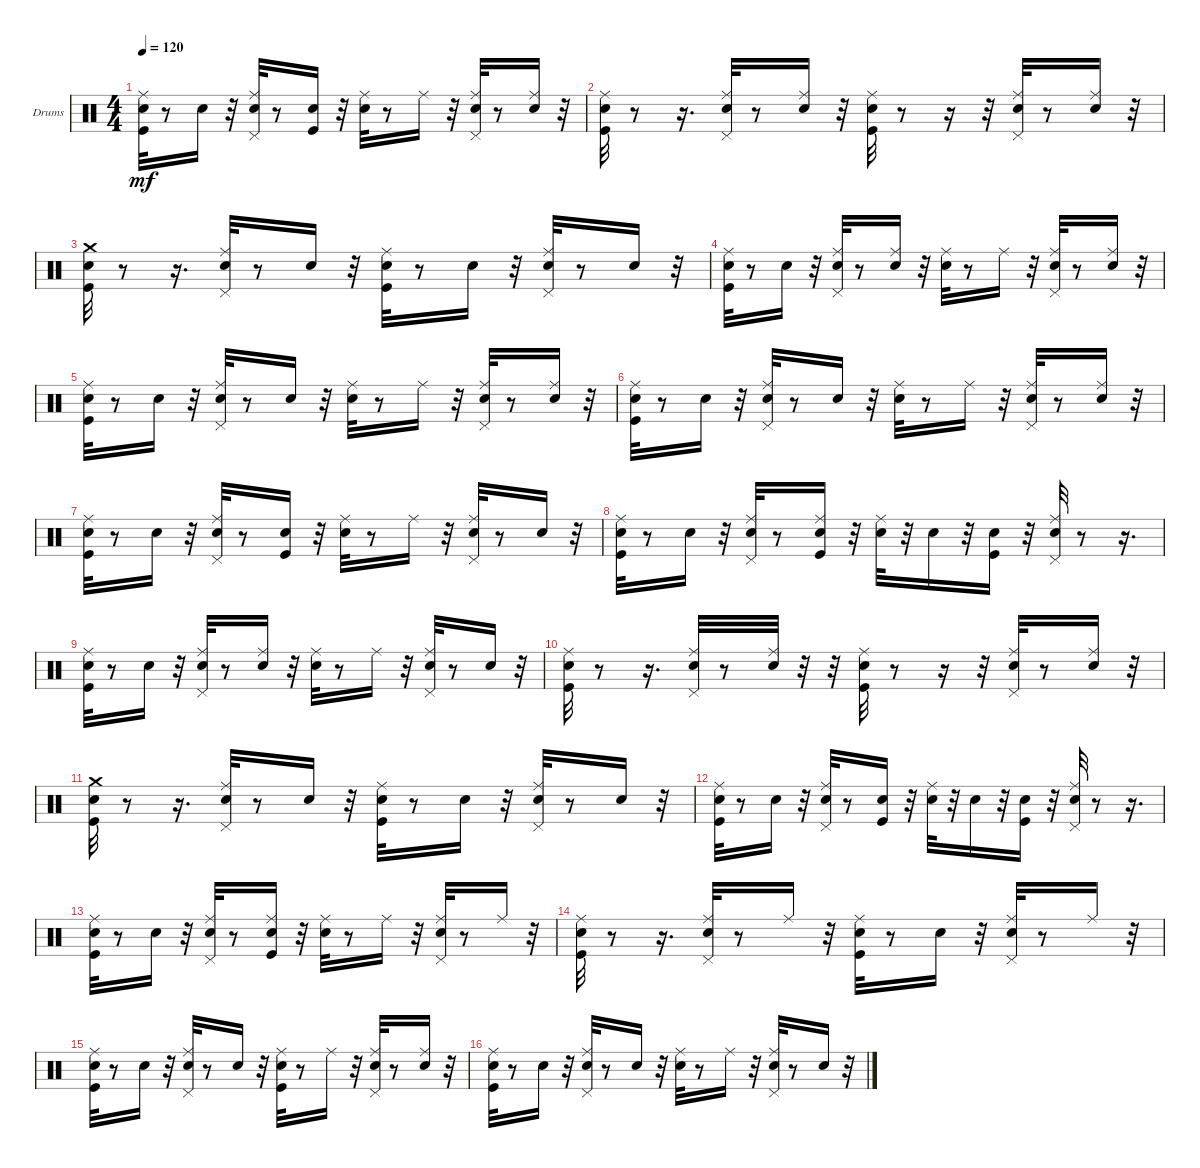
\bracketExtendMode groupsimilarinstruments
\firstSystemTrackNameOrientation horizontal
\otherSystemsTrackNameOrientation horizontal
\track ("Drums   (BB)" "Drums") {instrument percussion}
\staff {score}
\articulation defaults
\ts (4 4)
\tempo 120
\clef neutral
\ks c
("Kick (hit)" "Snare (hit) 2" "Ride (middle)").32{dy mf} r.8 "Snare (hit) 2".16 r.32 ("Snare (hit) 2" "Ride (middle)" "Pedal Hi-Hat (hit)").32 r.8 ("Kick (hit)" "Snare (hit) 2").16 r.32 ("Snare (hit) 2" "Ride (middle)").32 r.8 "Ride (middle)".16 r.32 ("Snare (hit) 2" "Ride (middle)" "Pedal Hi-Hat (hit)").32 r.8 ("Snare (hit) 2" "Ride (middle)").16 r.32 |
("Kick (hit)" "Snare (hit) 2" "Ride (middle)").32 r.8 r.16{d} ("Snare (hit) 2" "Ride (middle)" "Pedal Hi-Hat (hit)").32 r.8 ("Snare (hit) 2" "Ride (middle)").16 r.32 ("Kick (hit)" "Snare (hit) 2" "Ride (middle)").32 r.8 r.16 r.32 ("Snare (hit) 2" "Ride (middle)" "Pedal Hi-Hat (hit)").32 r.8 ("Snare (hit) 2" "Ride (middle)").16 r.32 |
("Kick (hit)" "Snare (hit) 2" "Crash medium (hit)").32 r.8 r.16{d} ("Snare (hit) 2" "Ride (middle)" "Pedal Hi-Hat (hit)").32 r.8 "Snare (hit) 2".16 r.32 ("Kick (hit)" "Snare (hit) 2" "Ride (middle)").32 r.8 "Snare (hit) 2".16 r.32 ("Snare (hit) 2" "Ride (middle)" "Pedal Hi-Hat (hit)").32 r.8 "Snare (hit) 2".16 r.32 |
("Kick (hit)" "Snare (hit) 2" "Ride (middle)").32 r.8 "Snare (hit) 2".16 r.32 ("Snare (hit) 2" "Ride (middle)" "Pedal Hi-Hat (hit)").32 r.8 ("Snare (hit) 2" "Ride (middle)").16 r.32 ("Snare (hit) 2" "Ride (middle)").32 r.8 "Ride (middle)".16 r.32 ("Snare (hit) 2" "Ride (middle)" "Pedal Hi-Hat (hit)").32 r.8 ("Snare (hit) 2" "Ride (middle)").16 r.32 |
("Kick (hit)" "Snare (hit) 2" "Ride (middle)").32 r.8 "Snare (hit) 2".16 r.32 ("Snare (hit) 2" "Ride (middle)" "Pedal Hi-Hat (hit)").32 r.8 "Snare (hit) 2".16 r.32 ("Snare (hit) 2" "Ride (middle)").32 r.8 "Ride (middle)".16 r.32 ("Snare (hit) 2" "Ride (middle)" "Pedal Hi-Hat (hit)").32 r.8 ("Snare (hit) 2" "Ride (middle)").16 r.32 |
("Kick (hit)" "Snare (hit) 2" "Ride (middle)").32 r.8 "Snare (hit) 2".16 r.32 ("Snare (hit) 2" "Ride (middle)" "Pedal Hi-Hat (hit)").32 r.8 "Snare (hit) 2".16 r.32 ("Snare (hit) 2" "Ride (middle)").32 r.8 "Ride (middle)".16 r.32 ("Snare (hit) 2" "Ride (middle)" "Pedal Hi-Hat (hit)").32 r.8 ("Snare (hit) 2" "Ride (middle)").16 r.32 |
("Kick (hit)" "Snare (hit) 2" "Ride (middle)").32 r.8 "Snare (hit) 2".16 r.32 ("Snare (hit) 2" "Ride (middle)" "Pedal Hi-Hat (hit)").32 r.8 ("Kick (hit)" "Snare (hit) 2").16 r.32 ("Snare (hit) 2" "Ride (middle)").32 r.8 "Ride (middle)".16 r.32 ("Snare (hit) 2" "Ride (middle)" "Pedal Hi-Hat (hit)").32 r.8 "Snare (hit) 2".16 r.32 |
("Kick (hit)" "Snare (hit) 2" "Ride (middle)").32 r.8 "Snare (hit) 2".16 r.32 ("Snare (hit) 2" "Ride (middle)" "Pedal Hi-Hat (hit)").32 r.8 ("Kick (hit)" "Snare (hit) 2" "Ride (middle)").16 r.32 ("Snare (hit) 2" "Ride (middle)").32 r.32 "Snare (hit) 2".16 r.32 ("Kick (hit)" "Snare (hit) 2").16 r.32 ("Snare (hit) 2" "Ride (middle)" "Pedal Hi-Hat (hit)").32 r.8 r.16{d} |
("Kick (hit)" "Snare (hit) 2" "Ride (middle)").32 r.8 "Snare (hit) 2".16 r.32 ("Snare (hit) 2" "Ride (middle)" "Pedal Hi-Hat (hit)").32 r.8 ("Snare (hit) 2" "Ride (middle)").16 r.32 ("Snare (hit) 2" "Ride (middle)").32 r.8 "Ride (middle)".16 r.32 ("Snare (hit) 2" "Ride (middle)" "Pedal Hi-Hat (hit)").32 r.8 "Snare (hit) 2".16 r.32 |
("Kick (hit)" "Snare (hit) 2" "Ride (middle)").32 r.8 r.16{d} ("Snare (hit) 2" "Ride (middle)" "Pedal Hi-Hat (hit)").32 r.8 ("Snare (hit) 2" "Ride (middle)").32 r.32 r.32 ("Kick (hit)" "Snare (hit) 2" "Ride (middle)").32 r.8 r.16 r.32 ("Snare (hit) 2" "Ride (middle)" "Pedal Hi-Hat (hit)").32 r.8 ("Snare (hit) 2" "Ride (middle)").16 r.32 |
("Kick (hit)" "Snare (hit) 2" "Crash medium (hit)").32 r.8 r.16{d} ("Snare (hit) 2" "Ride (middle)" "Pedal Hi-Hat (hit)").32 r.8 "Snare (hit) 2".16 r.32 ("Kick (hit)" "Snare (hit) 2" "Ride (middle)").32 r.8 "Snare (hit) 2".16 r.32 ("Snare (hit) 2" "Ride (middle)" "Pedal Hi-Hat (hit)").32 r.8 "Snare (hit) 2".16 r.32 |
("Kick (hit)" "Snare (hit) 2" "Ride (middle)").32 r.8 "Snare (hit) 2".16 r.32 ("Snare (hit) 2" "Ride (middle)" "Pedal Hi-Hat (hit)").32 r.8 ("Kick (hit)" "Snare (hit) 2").16 r.32 ("Snare (hit) 2" "Ride (middle)").32 r.32 "Snare (hit) 2".16 r.32 ("Kick (hit)" "Snare (hit) 2").16 r.32 ("Snare (hit) 2" "Ride (middle)" "Pedal Hi-Hat (hit)").32 r.8 r.16{d} |
("Kick (hit)" "Snare (hit) 2" "Ride (middle)").32 r.8 "Snare (hit) 2".16 r.32 ("Snare (hit) 2" "Ride (middle)" "Pedal Hi-Hat (hit)").32 r.8 ("Kick (hit)" "Snare (hit) 2" "Ride (middle)").16 r.32 ("Snare (hit) 2" "Ride (middle)").32 r.8 "Ride (middle)".16 r.32 ("Snare (hit) 2" "Ride (middle)" "Pedal Hi-Hat (hit)").32 r.8 "Ride (middle)".16 r.32 |
("Kick (hit)" "Snare (hit) 2" "Ride (middle)").32 r.8 r.16{d} ("Snare (hit) 2" "Ride (middle)" "Pedal Hi-Hat (hit)").32 r.8 "Ride (middle)".16 r.32 ("Kick (hit)" "Snare (hit) 2" "Ride (middle)").32 r.8 "Snare (hit) 2".16 r.32 ("Snare (hit) 2" "Ride (middle)" "Pedal Hi-Hat (hit)").32 r.8 "Ride (middle)".16 r.32 |
("Kick (hit)" "Snare (hit) 2" "Ride (middle)").32 r.8 "Snare (hit) 2".16 r.32 ("Snare (hit) 2" "Ride (middle)" "Pedal Hi-Hat (hit)").32 r.8 "Snare (hit) 2".16 r.32 ("Kick (hit)" "Snare (hit) 2" "Ride (middle)").32 r.8 "Ride (middle)".16 r.32 ("Snare (hit) 2" "Ride (middle)" "Pedal Hi-Hat (hit)").32 r.8 ("Snare (hit) 2" "Ride (middle)").16 r.32 |
("Kick (hit)" "Snare (hit) 2" "Ride (middle)").32 r.8 "Snare (hit) 2".16 r.32 ("Snare (hit) 2" "Ride (middle)" "Pedal Hi-Hat (hit)").32 r.8 "Snare (hit) 2".16 r.32 ("Snare (hit) 2" "Ride (middle)").32 r.8 "Ride (middle)".16 r.32 ("Snare (hit) 2" "Ride (middle)" "Pedal Hi-Hat (hit)").32 r.8 "Snare (hit) 2".16 r.32
